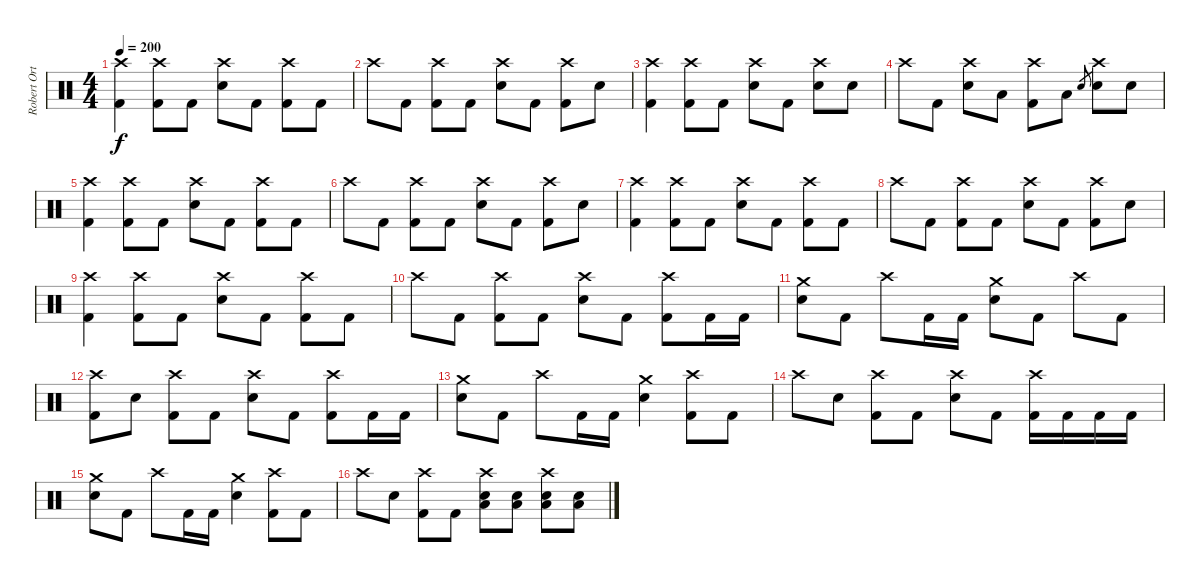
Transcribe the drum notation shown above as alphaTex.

\track ("Robert Ortiz - Drums" "Robert Ort") {instrument percussion}
\staff {score}
\articulation defaults
\ts (4 4)
\tempo 200
\clef neutral
\ks c
("Crash high (hit)" "Kick (hit) 2").4{dy f} ("Crash high (hit)" "Kick (hit) 2").8 "Kick (hit) 2".8 ("Crash high (hit)" "Electric Snare (hit)").8 "Kick (hit) 2".8 ("Crash high (hit)" "Kick (hit) 2").8 "Kick (hit) 2".8 |
"Crash high (hit)".8 "Kick (hit) 2".8 ("Crash high (hit)" "Kick (hit) 2").8 "Kick (hit) 2".8 ("Crash high (hit)" "Electric Snare (hit)").8 "Kick (hit) 2".8 ("Crash high (hit)" "Kick (hit) 2").8 "Electric Snare (hit)".8 |
("Crash high (hit)" "Kick (hit) 2").4 ("Crash high (hit)" "Kick (hit) 2").8 "Kick (hit) 2".8 ("Crash high (hit)" "Electric Snare (hit)").8 "Kick (hit) 2".8 ("Crash high (hit)" "Electric Snare (hit)").8 "Electric Snare (hit)".8 |
"Crash high (hit)".8 "Kick (hit) 2".8 ("Crash high (hit)" "Electric Snare (hit)").8 "Low Tom (hit)".8 ("Crash high (hit)" "Kick (hit) 2").8 "Low Tom (hit)".8 "Electric Snare (hit)".8{gr} ("Crash high (hit)" "Electric Snare (hit)").8 "Electric Snare (hit)".8 |
("Crash high (hit)" "Kick (hit) 2").4 ("Crash high (hit)" "Kick (hit) 2").8 "Kick (hit) 2".8 ("Crash high (hit)" "Electric Snare (hit)").8 "Kick (hit) 2".8 ("Crash high (hit)" "Kick (hit) 2").8 "Kick (hit) 2".8 |
"Crash high (hit)".8 "Kick (hit) 2".8 ("Crash high (hit)" "Kick (hit) 2").8 "Kick (hit) 2".8 ("Crash high (hit)" "Electric Snare (hit)").8 "Kick (hit) 2".8 ("Crash high (hit)" "Kick (hit) 2").8 "Electric Snare (hit)".8 |
("Crash high (hit)" "Kick (hit) 2").4 ("Crash high (hit)" "Kick (hit) 2").8 "Kick (hit) 2".8 ("Crash high (hit)" "Electric Snare (hit)").8 "Kick (hit) 2".8 ("Crash high (hit)" "Kick (hit) 2").8 "Kick (hit) 2".8 |
"Crash high (hit)".8 "Kick (hit) 2".8 ("Crash high (hit)" "Kick (hit) 2").8 "Kick (hit) 2".8 ("Crash high (hit)" "Electric Snare (hit)").8 "Kick (hit) 2".8 ("Crash high (hit)" "Kick (hit) 2").8 "Electric Snare (hit)".8 |
("Crash high (hit)" "Kick (hit) 2").4 ("Crash high (hit)" "Kick (hit) 2").8 "Kick (hit) 2".8 ("Crash high (hit)" "Electric Snare (hit)").8 "Kick (hit) 2".8 ("Crash high (hit)" "Kick (hit) 2").8 "Kick (hit) 2".8 |
"Crash high (hit)".8 "Kick (hit) 2".8 ("Crash high (hit)" "Kick (hit) 2").8 "Kick (hit) 2".8 ("Crash high (hit)" "Electric Snare (hit)").8 "Kick (hit) 2".8 ("Crash high (hit)" "Kick (hit) 2").8 "Kick (hit) 2".16 "Kick (hit) 2".16 |
("Crash medium (hit)" "Electric Snare (hit)").8 "Kick (hit) 2".8 "Crash high (hit)".8 "Kick (hit) 2".16 "Kick (hit) 2".16 ("Crash medium (hit)" "Electric Snare (hit)").8 "Kick (hit) 2".8 "Crash high (hit)".8 "Kick (hit) 2".8 |
("Crash high (hit)" "Kick (hit) 2").8 "Electric Snare (hit)".8 ("Crash high (hit)" "Kick (hit) 2").8 "Kick (hit) 2".8 ("Crash high (hit)" "Electric Snare (hit)").8 "Kick (hit) 2".8 ("Crash high (hit)" "Kick (hit) 2").8 "Kick (hit) 2".16 "Kick (hit) 2".16 |
("Crash medium (hit)" "Electric Snare (hit)").8 "Kick (hit) 2".8 "Crash high (hit)".8 "Kick (hit) 2".16 "Kick (hit) 2".16 ("Crash medium (hit)" "Electric Snare (hit)").4 ("Crash high (hit)" "Kick (hit) 2").8 "Kick (hit) 2".8 |
"Crash high (hit)".8 "Electric Snare (hit)".8 ("Crash high (hit)" "Kick (hit) 2").8 "Kick (hit) 2".8 ("Crash high (hit)" "Electric Snare (hit)").8 "Kick (hit) 2".8 ("Crash high (hit)" "Kick (hit) 2").16 "Kick (hit) 2".16 "Kick (hit) 2".16 "Kick (hit) 2".16 |
("Crash medium (hit)" "Electric Snare (hit)").8 "Kick (hit) 2".8 "Crash high (hit)".8 "Kick (hit) 2".16 "Kick (hit) 2".16 ("Crash medium (hit)" "Electric Snare (hit)").4 ("Crash high (hit)" "Kick (hit) 2").8 "Kick (hit) 2".8 |
"Crash high (hit)".8 "Electric Snare (hit)".8 ("Crash high (hit)" "Kick (hit) 2").8 "Kick (hit) 2".8 ("Crash high (hit)" "Low Floor Tom (hit)" "Electric Snare (hit)").8 ("Low Floor Tom (hit)" "Electric Snare (hit)").8 ("Crash high (hit)" "Low Floor Tom (hit)" "Electric Snare (hit)").8 ("Low Floor Tom (hit)" "Electric Snare (hit)").8
